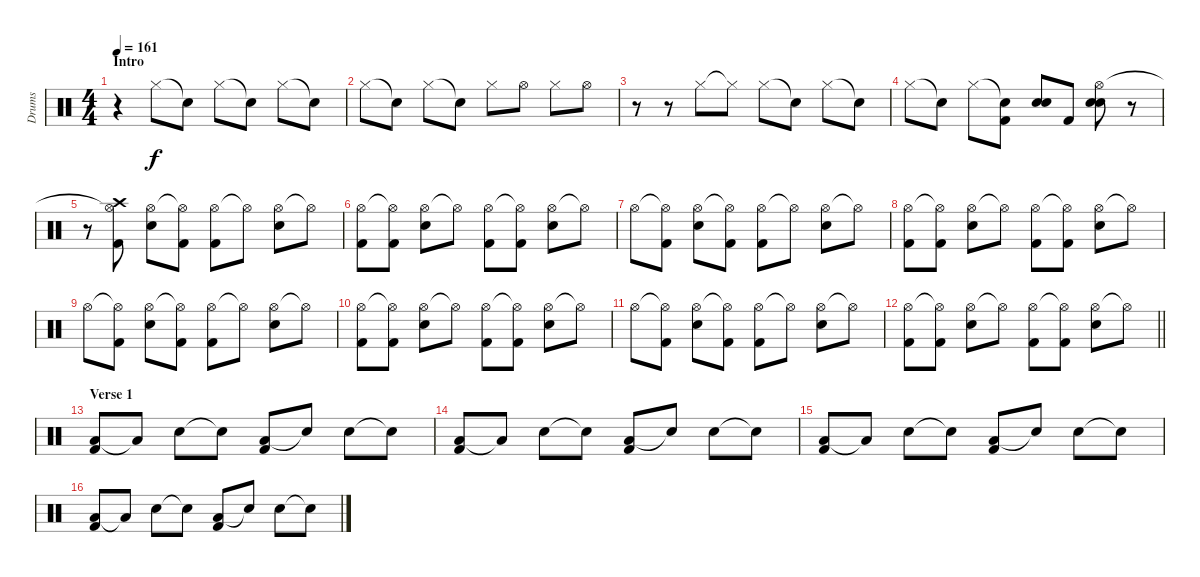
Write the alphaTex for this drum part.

\track ("Drums" "Drums") {instrument percussion}
\staff {score}
\articulation defaults
\ts (4 4)
\section ("" "Intro")
\tempo 161
\clef neutral
\ks c
r.4{dy f} "Hi-Hat (closed)".8 "Snare (hit)"{t}.8 "Hi-Hat (closed)".8 "Snare (hit)"{t}.8 "Hi-Hat (closed)".8 "Snare (hit)"{t}.8 |
"Hi-Hat (closed)".8 "Snare (hit)"{t}.8 "Hi-Hat (closed)".8 "Snare (hit)"{t}.8 "Hi-Hat (closed)".8 "Hi-Hat (open)".8 "Hi-Hat (closed)".8 "Hi-Hat (open)".8 |
r.8 r.8 "Hi-Hat (closed)".8 "Hi-Hat (closed)"{t}.8 "Hi-Hat (closed)".8 "Snare (hit)"{t}.8 "Hi-Hat (closed)".8 "Snare (hit)"{t}.8 |
"Hi-Hat (closed)".8 "Snare (hit)"{t}.8 "Hi-Hat (closed)".8 ("Snare (hit)"{t} "Kick (hit) 2").8 ("Electric Snare (hit)" "Electric Snare (hit)").8 "Kick (hit) 2".8 ("Hi-Hat (open)" "Electric Snare (hit)" "Electric Snare (hit)").8 r.8 |
r.8 ("Hi-Hat (open)"{t} "Kick (hit) 2" "Crash high (hit)").8 ("Hi-Hat (open)" "Electric Snare (hit)").8 ("Hi-Hat (open)"{t} "Kick (hit) 2").8 ("Hi-Hat (open)" "Kick (hit) 2").8 "Hi-Hat (open)"{t}.8 ("Hi-Hat (open)" "Electric Snare (hit)").8 "Hi-Hat (open)"{t}.8 |
("Hi-Hat (open)" "Kick (hit) 2").8 ("Hi-Hat (open)"{t} "Kick (hit) 2").8 ("Hi-Hat (open)" "Electric Snare (hit)").8 "Hi-Hat (open)"{t}.8 ("Hi-Hat (open)" "Kick (hit) 2").8 ("Hi-Hat (open)"{t} "Kick (hit) 2").8 ("Hi-Hat (open)" "Electric Snare (hit)").8 "Hi-Hat (open)"{t}.8 |
"Hi-Hat (open)".8 ("Hi-Hat (open)"{t} "Kick (hit) 2").8 ("Hi-Hat (open)" "Electric Snare (hit)").8 ("Hi-Hat (open)"{t} "Kick (hit) 2").8 ("Hi-Hat (open)" "Kick (hit) 2").8 "Hi-Hat (open)"{t}.8 ("Hi-Hat (open)" "Electric Snare (hit)").8 "Hi-Hat (open)"{t}.8 |
("Hi-Hat (open)" "Kick (hit) 2").8 ("Hi-Hat (open)"{t} "Kick (hit) 2").8 ("Hi-Hat (open)" "Electric Snare (hit)").8 "Hi-Hat (open)"{t}.8 ("Hi-Hat (open)" "Kick (hit) 2").8 ("Hi-Hat (open)"{t} "Kick (hit) 2").8 ("Hi-Hat (open)" "Electric Snare (hit)").8 "Hi-Hat (open)"{t}.8 |
"Hi-Hat (open)".8 ("Hi-Hat (open)"{t} "Kick (hit) 2").8 ("Hi-Hat (open)" "Electric Snare (hit)").8 ("Hi-Hat (open)"{t} "Kick (hit) 2").8 ("Hi-Hat (open)" "Kick (hit) 2").8 "Hi-Hat (open)"{t}.8 ("Hi-Hat (open)" "Electric Snare (hit)").8 "Hi-Hat (open)"{t}.8 |
("Hi-Hat (open)" "Kick (hit) 2").8 ("Hi-Hat (open)"{t} "Kick (hit) 2").8 ("Hi-Hat (open)" "Electric Snare (hit)").8 "Hi-Hat (open)"{t}.8 ("Hi-Hat (open)" "Kick (hit) 2").8 ("Hi-Hat (open)"{t} "Kick (hit) 2").8 ("Hi-Hat (open)" "Electric Snare (hit)").8 "Hi-Hat (open)"{t}.8 |
"Hi-Hat (open)".8 ("Hi-Hat (open)"{t} "Kick (hit) 2").8 ("Hi-Hat (open)" "Electric Snare (hit)").8 ("Hi-Hat (open)"{t} "Kick (hit) 2").8 ("Hi-Hat (open)" "Kick (hit) 2").8 "Hi-Hat (open)"{t}.8 ("Hi-Hat (open)" "Electric Snare (hit)").8 "Hi-Hat (open)"{t}.8 |
\barLineRight lightlight
("Hi-Hat (open)" "Kick (hit) 2").8 ("Hi-Hat (open)"{t} "Kick (hit) 2").8 ("Hi-Hat (open)" "Electric Snare (hit)").8 "Hi-Hat (open)"{t}.8 ("Hi-Hat (open)" "Kick (hit) 2").8 ("Hi-Hat (open)"{t} "Kick (hit) 2").8 ("Hi-Hat (open)" "Electric Snare (hit)").8 "Hi-Hat (open)"{t}.8 |
\section ("" "Verse 1")
("Low Tom (hit)" "Kick (hit) 2").8{volume 14} "Low Tom (hit)"{t}.8 "Electric Snare (hit)".8 "Snare (hit)"{t}.8 ("Low Tom (hit)" "Kick (hit) 2").8 "Snare (hit)"{t}.8 "Electric Snare (hit)".8 "Snare (hit)"{t}.8 |
("Low Tom (hit)" "Kick (hit) 2").8 "Low Tom (hit)"{t}.8 "Electric Snare (hit)".8 "Snare (hit)"{t}.8 ("Low Tom (hit)" "Kick (hit) 2").8 "Snare (hit)"{t}.8 "Electric Snare (hit)".8 "Snare (hit)"{t}.8 |
("Low Tom (hit)" "Kick (hit) 2").8 "Low Tom (hit)"{t}.8 "Electric Snare (hit)".8 "Snare (hit)"{t}.8 ("Low Tom (hit)" "Kick (hit) 2").8 "Snare (hit)"{t}.8 "Electric Snare (hit)".8 "Snare (hit)"{t}.8 |
("Low Tom (hit)" "Kick (hit) 2").8 "Low Tom (hit)"{t}.8 "Electric Snare (hit)".8 "Snare (hit)"{t}.8 ("Low Tom (hit)" "Kick (hit) 2").8 "Snare (hit)"{t}.8 "Electric Snare (hit)".8 "Snare (hit)"{t}.8
